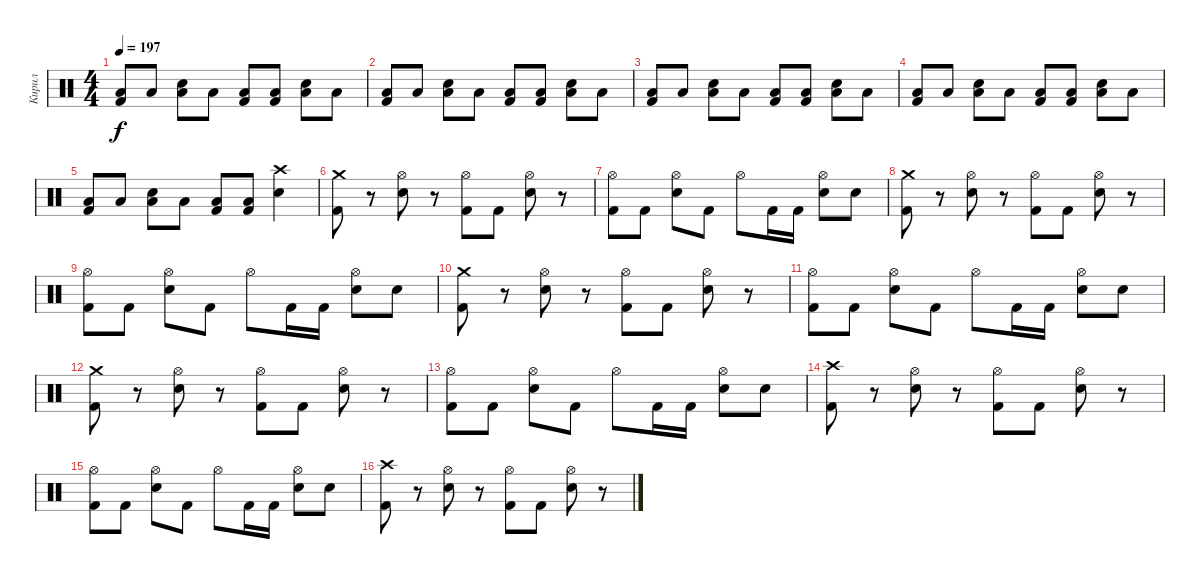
\track ("Кирил" "Кирил") {instrument percussion}
\staff {score}
\articulation defaults
\ts (4 4)
\tempo 197
\clef neutral
\ks c
("Kick (hit) 2" "Low Floor Tom (hit)").8{dy f} "Low Floor Tom (hit)".8 ("Electric Snare (hit)" "Low Floor Tom (hit)").8 "Low Floor Tom (hit)".8 ("Kick (hit) 2" "Low Floor Tom (hit)").8 ("Kick (hit) 2" "Low Floor Tom (hit)").8 ("Electric Snare (hit)" "Low Floor Tom (hit)").8 "Low Floor Tom (hit)".8 |
("Kick (hit) 2" "Low Floor Tom (hit)").8 "Low Floor Tom (hit)".8 ("Electric Snare (hit)" "Low Floor Tom (hit)").8 "Low Floor Tom (hit)".8 ("Kick (hit) 2" "Low Floor Tom (hit)").8 ("Kick (hit) 2" "Low Floor Tom (hit)").8 ("Electric Snare (hit)" "Low Floor Tom (hit)").8 "Low Floor Tom (hit)".8 |
("Kick (hit) 2" "Low Floor Tom (hit)").8 "Low Floor Tom (hit)".8 ("Electric Snare (hit)" "Low Floor Tom (hit)").8 "Low Floor Tom (hit)".8 ("Kick (hit) 2" "Low Floor Tom (hit)").8 ("Kick (hit) 2" "Low Floor Tom (hit)").8 ("Electric Snare (hit)" "Low Floor Tom (hit)").8 "Low Floor Tom (hit)".8 |
("Kick (hit) 2" "Low Floor Tom (hit)").8 "Low Floor Tom (hit)".8 ("Electric Snare (hit)" "Low Floor Tom (hit)").8 "Low Floor Tom (hit)".8 ("Kick (hit) 2" "Low Floor Tom (hit)").8 ("Kick (hit) 2" "Low Floor Tom (hit)").8 ("Electric Snare (hit)" "Low Floor Tom (hit)").8 "Low Floor Tom (hit)".8 |
("Kick (hit) 2" "Low Floor Tom (hit)").8 "Low Floor Tom (hit)".8 ("Electric Snare (hit)" "Low Floor Tom (hit)").8 "Low Floor Tom (hit)".8 ("Kick (hit) 2" "Low Floor Tom (hit)").8 ("Kick (hit) 2" "Low Floor Tom (hit)").8 ("Electric Snare (hit)" "Crash high (hit)").4 |
("Kick (hit) 2" "Crash medium (hit)").8 r.8 ("Electric Snare (hit)" "Hi-Hat (open)").8 r.8 ("Kick (hit) 2" "Hi-Hat (open)").8 "Kick (hit) 2".8 ("Electric Snare (hit)" "Hi-Hat (open)").8 r.8 |
("Kick (hit) 2" "Hi-Hat (open)").8 "Kick (hit) 2".8 ("Electric Snare (hit)" "Hi-Hat (open)").8 "Kick (hit) 2".8 "Hi-Hat (open)".8 "Kick (hit) 2".16 "Kick (hit) 2".16 ("Electric Snare (hit)" "Hi-Hat (open)").8 "Electric Snare (hit)".8 |
("Kick (hit) 2" "Crash medium (hit)").8 r.8 ("Electric Snare (hit)" "Hi-Hat (open)").8 r.8 ("Kick (hit) 2" "Hi-Hat (open)").8 "Kick (hit) 2".8 ("Electric Snare (hit)" "Hi-Hat (open)").8 r.8 |
("Kick (hit) 2" "Hi-Hat (open)").8 "Kick (hit) 2".8 ("Electric Snare (hit)" "Hi-Hat (open)").8 "Kick (hit) 2".8 "Hi-Hat (open)".8 "Kick (hit) 2".16 "Kick (hit) 2".16 ("Electric Snare (hit)" "Hi-Hat (open)").8 "Electric Snare (hit)".8 |
("Kick (hit) 2" "Crash medium (hit)").8 r.8 ("Electric Snare (hit)" "Hi-Hat (open)").8 r.8 ("Kick (hit) 2" "Hi-Hat (open)").8 "Kick (hit) 2".8 ("Electric Snare (hit)" "Hi-Hat (open)").8 r.8 |
("Kick (hit) 2" "Hi-Hat (open)").8 "Kick (hit) 2".8 ("Electric Snare (hit)" "Hi-Hat (open)").8 "Kick (hit) 2".8 "Hi-Hat (open)".8 "Kick (hit) 2".16 "Kick (hit) 2".16 ("Electric Snare (hit)" "Hi-Hat (open)").8 "Electric Snare (hit)".8 |
("Kick (hit) 2" "Crash medium (hit)").8 r.8 ("Electric Snare (hit)" "Hi-Hat (open)").8 r.8 ("Kick (hit) 2" "Hi-Hat (open)").8 "Kick (hit) 2".8 ("Electric Snare (hit)" "Hi-Hat (open)").8 r.8 |
("Kick (hit) 2" "Hi-Hat (open)").8 "Kick (hit) 2".8 ("Electric Snare (hit)" "Hi-Hat (open)").8 "Kick (hit) 2".8 "Hi-Hat (open)".8 "Kick (hit) 2".16 "Kick (hit) 2".16 ("Electric Snare (hit)" "Hi-Hat (open)").8 "Electric Snare (hit)".8 |
("Kick (hit) 2" "Crash high (hit)").8 r.8 ("Electric Snare (hit)" "Hi-Hat (open)").8 r.8 ("Kick (hit) 2" "Hi-Hat (open)").8 "Kick (hit) 2".8 ("Electric Snare (hit)" "Hi-Hat (open)").8 r.8 |
("Kick (hit) 2" "Hi-Hat (open)").8 "Kick (hit) 2".8 ("Electric Snare (hit)" "Hi-Hat (open)").8 "Kick (hit) 2".8 "Hi-Hat (open)".8 "Kick (hit) 2".16 "Kick (hit) 2".16 ("Electric Snare (hit)" "Hi-Hat (open)").8 "Electric Snare (hit)".8 |
("Kick (hit) 2" "Crash high (hit)").8 r.8 ("Electric Snare (hit)" "Hi-Hat (open)").8 r.8 ("Kick (hit) 2" "Hi-Hat (open)").8 "Kick (hit) 2".8 ("Electric Snare (hit)" "Hi-Hat (open)").8 r.8
